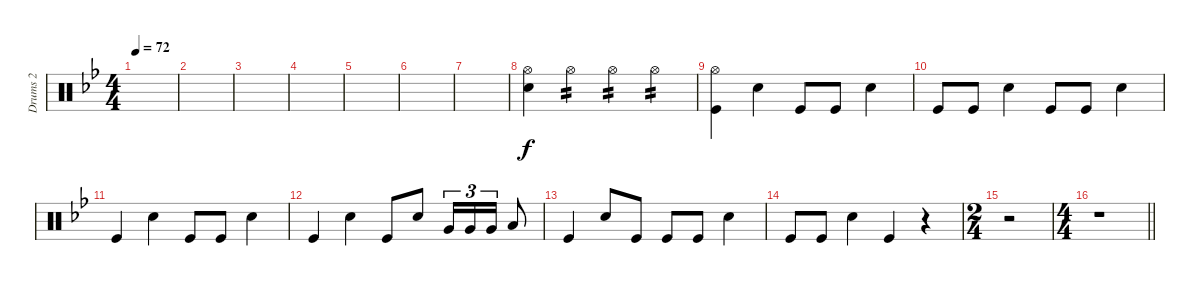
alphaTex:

\track ("Drums 2" "Drums 2") {instrument percussion}
\staff {score}
\articulation defaults
\ts (4 4)
\tempo 72
\clef neutral
\ks bb
|
|
|
|
|
|
|
("Snare (hit) 2" "Hi-Hat (open)").4 "Hi-Hat (open)".4{tp 2} "Hi-Hat (open)".4{tp 2} "Hi-Hat (open)".4{tp 2} |
("Hi-Hat (open)" "Kick (hit)").4 "Snare (hit) 2".4 "Kick (hit)".8 "Kick (hit)".8 "Snare (hit) 2".4 |
"Kick (hit)".8 "Kick (hit)".8 "Snare (hit) 2".4 "Kick (hit)".8 "Kick (hit)".8 "Snare (hit) 2".4 |
"Kick (hit)".4 "Snare (hit) 2".4 "Kick (hit)".8 "Kick (hit)".8 "Snare (hit) 2".4 |
"Kick (hit)".4 "Snare (hit) 2".4 "Kick (hit)".8 "Snare (hit) 2".8 "Very Low Tom (hit)".16{tu (3 2)} "Very Low Tom (hit)".16{tu (3 2)} "Very Low Tom (hit)".16{tu (3 2)} "Low Floor Tom (hit)".8 |
"Kick (hit)".4 "Snare (hit) 2".8 "Kick (hit)".8 "Kick (hit)".8 "Kick (hit)".8 "Snare (hit) 2".4 |
"Kick (hit)".8 "Kick (hit)".8 "Snare (hit) 2".4 "Kick (hit)".4 r.4 |
\ts (2 4)
r.2 |
\ts (4 4)
\barLineRight lightlight
r.1
